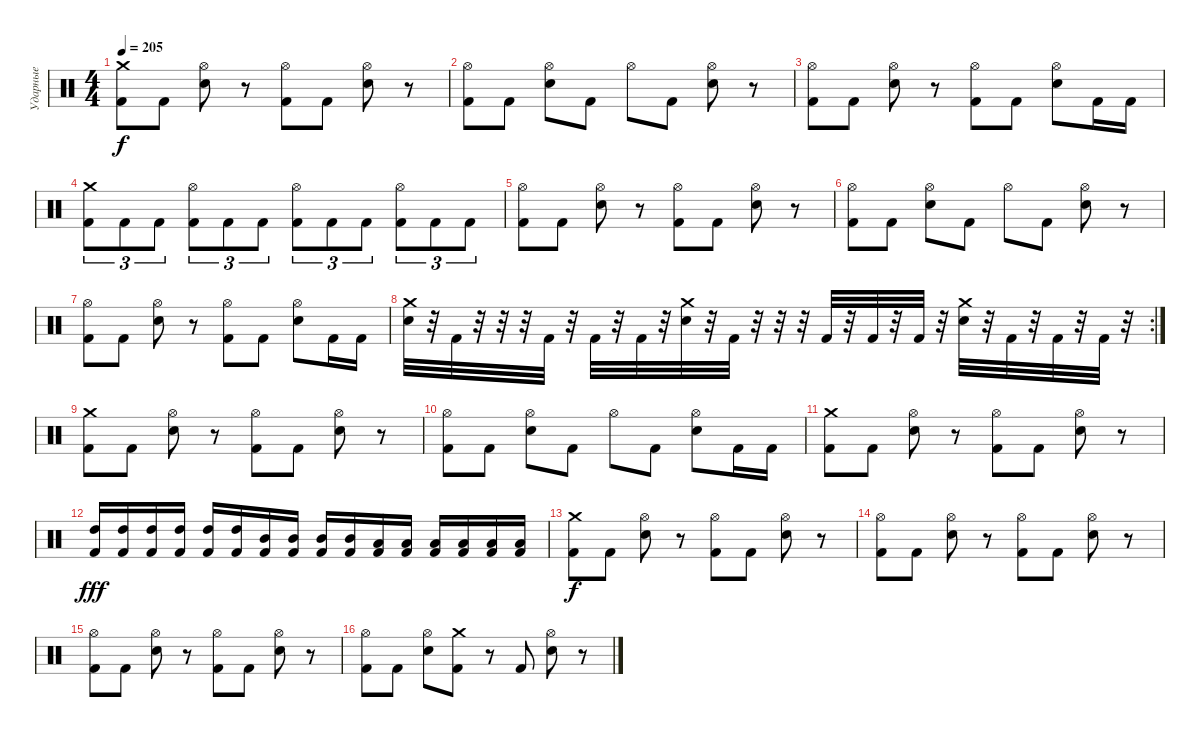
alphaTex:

\track ("Ударные" "Ударные") {instrument percussion}
\staff {score}
\articulation defaults
\ts (4 4)
\tempo 205
\clef neutral
\ks c
("Crash medium (hit)" "Kick (hit) 2").8{dy f} "Kick (hit) 2".8 ("Hi-Hat (open)" "Electric Snare (hit)").8 r.8 ("Hi-Hat (open)" "Kick (hit) 2").8 "Kick (hit) 2".8 ("Hi-Hat (open)" "Electric Snare (hit)").8 r.8 |
("Hi-Hat (open)" "Kick (hit) 2").8 "Kick (hit) 2".8 ("Hi-Hat (open)" "Electric Snare (hit)").8 "Kick (hit) 2".8 "Hi-Hat (open)".8 "Kick (hit) 2".8 ("Hi-Hat (open)" "Electric Snare (hit)").8 r.8 |
("Hi-Hat (open)" "Kick (hit) 2").8 "Kick (hit) 2".8 ("Hi-Hat (open)" "Electric Snare (hit)").8 r.8 ("Hi-Hat (open)" "Kick (hit) 2").8 "Kick (hit) 2".8 ("Hi-Hat (open)" "Electric Snare (hit)").8 "Kick (hit) 2".16 "Kick (hit) 2".16 |
("Crash medium (hit)" "Kick (hit) 2").8{tu (3 2)} "Kick (hit) 2".8{tu (3 2)} "Kick (hit) 2".8{tu (3 2)} ("Hi-Hat (open)" "Kick (hit) 2").8{tu (3 2)} "Kick (hit) 2".8{tu (3 2)} "Kick (hit) 2".8{tu (3 2)} ("Hi-Hat (open)" "Kick (hit) 2").8{tu (3 2)} "Kick (hit) 2".8{tu (3 2)} "Kick (hit) 2".8{tu (3 2)} ("Hi-Hat (open)" "Kick (hit) 2").8{tu (3 2)} "Kick (hit) 2".8{tu (3 2)} "Kick (hit) 2".8{tu (3 2)} |
("Hi-Hat (open)" "Kick (hit) 2").8 "Kick (hit) 2".8 ("Hi-Hat (open)" "Electric Snare (hit)").8 r.8 ("Hi-Hat (open)" "Kick (hit) 2").8 "Kick (hit) 2".8 ("Hi-Hat (open)" "Electric Snare (hit)").8 r.8 |
("Hi-Hat (open)" "Kick (hit) 2").8 "Kick (hit) 2".8 ("Hi-Hat (open)" "Electric Snare (hit)").8 "Kick (hit) 2".8 "Hi-Hat (open)".8 "Kick (hit) 2".8 ("Hi-Hat (open)" "Electric Snare (hit)").8 r.8 |
("Hi-Hat (open)" "Kick (hit) 2").8 "Kick (hit) 2".8 ("Hi-Hat (open)" "Electric Snare (hit)").8 r.8 ("Hi-Hat (open)" "Kick (hit) 2").8 "Kick (hit) 2".8 ("Hi-Hat (open)" "Electric Snare (hit)").8 "Kick (hit) 2".16 "Kick (hit) 2".16 |
\rc 2
("Crash medium (hit)" "Electric Snare (hit)").32 r.32 "Kick (hit) 2".32 r.32 r.32 r.32 "Kick (hit) 2".32 r.32 "Kick (hit) 2".32 r.32 "Kick (hit) 2".32 r.32 ("Crash medium (hit)" "Electric Snare (hit)").32 r.32 "Kick (hit) 2".32 r.32 r.32 r.32 "Kick (hit) 2".32 r.32 "Kick (hit) 2".32 r.32 "Kick (hit) 2".32 r.32 ("Crash medium (hit)" "Electric Snare (hit)").32 r.32 "Kick (hit) 2".32 r.32 "Kick (hit) 2".32 r.32 "Kick (hit) 2".32 r.32 |
("Crash medium (hit)" "Kick (hit) 2").8 "Kick (hit) 2".8 ("Hi-Hat (open)" "Electric Snare (hit)").8 r.8 ("Hi-Hat (open)" "Kick (hit) 2").8 "Kick (hit) 2".8 ("Hi-Hat (open)" "Electric Snare (hit)").8 r.8 |
("Hi-Hat (open)" "Kick (hit) 2").8 "Kick (hit) 2".8 ("Hi-Hat (open)" "Electric Snare (hit)").8 "Kick (hit) 2".8 "Hi-Hat (open)".8 "Kick (hit) 2".8 ("Hi-Hat (open)" "Electric Snare (hit)").8 "Kick (hit) 2".16 "Kick (hit) 2".16 |
("Crash medium (hit)" "Kick (hit) 2").8 "Kick (hit) 2".8 ("Hi-Hat (open)" "Electric Snare (hit)").8 r.8 ("Hi-Hat (open)" "Kick (hit) 2").8 "Kick (hit) 2".8 ("Hi-Hat (open)" "Electric Snare (hit)").8 r.8 |
("High Tom (hit)" "Kick (hit) 2").16{dy fff} ("High Tom (hit)" "Kick (hit) 2").16 ("High Tom (hit)" "Kick (hit) 2").16 ("High Tom (hit)" "Kick (hit) 2").16 ("High Tom (hit)" "Kick (hit) 2").16 ("High Tom (hit)" "Kick (hit) 2").16 ("Mid Tom (hit)" "Kick (hit) 2").16 ("Mid Tom (hit)" "Kick (hit) 2").16 ("Mid Tom (hit)" "Kick (hit) 2").16 ("Mid Tom (hit)" "Kick (hit) 2").16 ("Low Tom (hit)" "Kick (hit) 2").16 ("Low Tom (hit)" "Kick (hit) 2").16 ("Low Tom (hit)" "Kick (hit) 2").16 ("Low Floor Tom (hit)" "Kick (hit) 2").16 ("Low Floor Tom (hit)" "Kick (hit) 2").16 ("Low Floor Tom (hit)" "Kick (hit) 2").16 |
("Crash medium (hit)" "Kick (hit) 2").8{dy f} "Kick (hit) 2".8 ("Hi-Hat (open)" "Electric Snare (hit)").8 r.8 ("Hi-Hat (open)" "Kick (hit) 2").8 "Kick (hit) 2".8 ("Hi-Hat (open)" "Electric Snare (hit)").8 r.8 |
("Hi-Hat (open)" "Kick (hit) 2").8 "Kick (hit) 2".8 ("Hi-Hat (open)" "Electric Snare (hit)").8 r.8 ("Hi-Hat (open)" "Kick (hit) 2").8 "Kick (hit) 2".8 ("Hi-Hat (open)" "Electric Snare (hit)").8 r.8 |
("Hi-Hat (open)" "Kick (hit) 2").8 "Kick (hit) 2".8 ("Hi-Hat (open)" "Electric Snare (hit)").8 r.8 ("Hi-Hat (open)" "Kick (hit) 2").8 "Kick (hit) 2".8 ("Hi-Hat (open)" "Electric Snare (hit)").8 r.8 |
("Hi-Hat (open)" "Kick (hit) 2").8 "Kick (hit) 2".8 ("Hi-Hat (open)" "Electric Snare (hit)").8 ("Crash medium (hit)" "Kick (hit) 2").8 r.8 "Kick (hit) 2".8 ("Hi-Hat (open)" "Electric Snare (hit)").8 r.8
